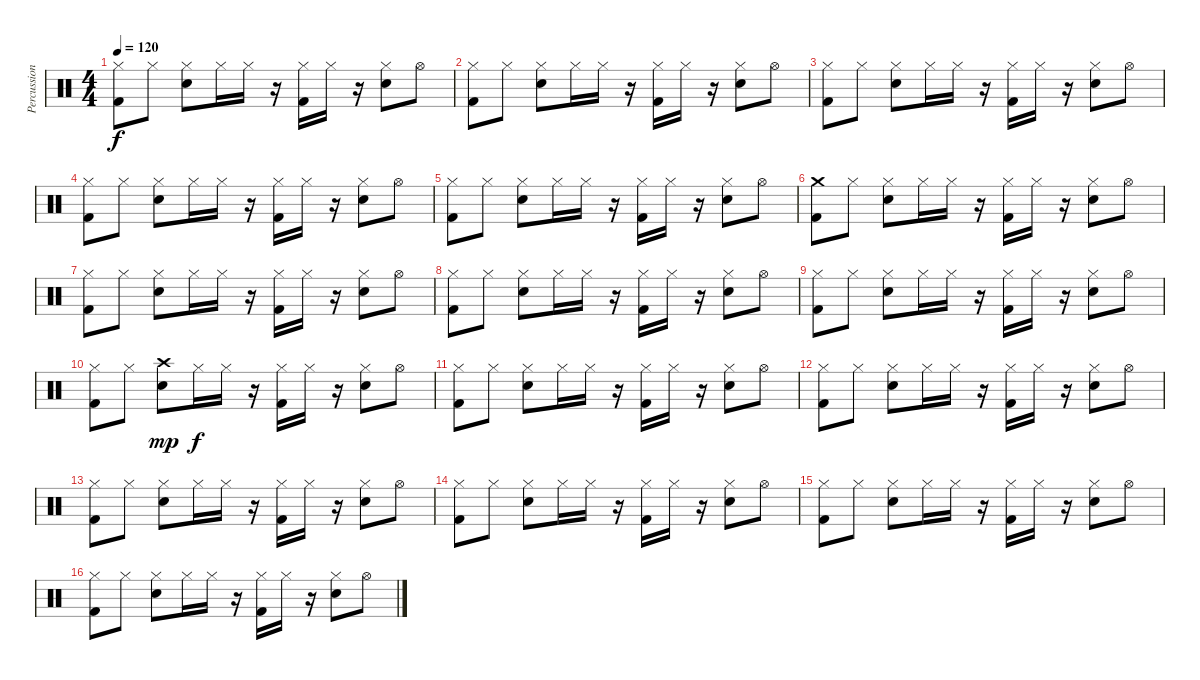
\track ("Percussions" "Percussion") {instrument percussion}
\staff {score}
\articulation defaults
\ts (4 4)
\tempo 120
\clef neutral
\ks c
("Hi-Hat (closed)" "Kick (hit) 2").8{dy f} "Hi-Hat (closed)".8 ("Hi-Hat (closed)" "Snare (hit) 2").8 "Hi-Hat (closed)".16 "Hi-Hat (closed)".16 r.16 ("Hi-Hat (closed)" "Kick (hit) 2").16 "Hi-Hat (closed)".16 r.16 ("Hi-Hat (closed)" "Snare (hit) 2").8 "Hi-Hat (open)".8 |
("Hi-Hat (closed)" "Kick (hit) 2").8 "Hi-Hat (closed)".8 ("Hi-Hat (closed)" "Snare (hit) 2").8 "Hi-Hat (closed)".16 "Hi-Hat (closed)".16 r.16 ("Hi-Hat (closed)" "Kick (hit) 2").16 "Hi-Hat (closed)".16 r.16 ("Hi-Hat (closed)" "Snare (hit) 2").8 "Hi-Hat (open)".8 |
("Hi-Hat (closed)" "Kick (hit) 2").8 "Hi-Hat (closed)".8 ("Hi-Hat (closed)" "Snare (hit) 2").8 "Hi-Hat (closed)".16 "Hi-Hat (closed)".16 r.16 ("Hi-Hat (closed)" "Kick (hit) 2").16 "Hi-Hat (closed)".16 r.16 ("Hi-Hat (closed)" "Snare (hit) 2").8 "Hi-Hat (open)".8 |
("Hi-Hat (closed)" "Kick (hit) 2").8 "Hi-Hat (closed)".8 ("Hi-Hat (closed)" "Snare (hit) 2").8 "Hi-Hat (closed)".16 "Hi-Hat (closed)".16 r.16 ("Hi-Hat (closed)" "Kick (hit) 2").16 "Hi-Hat (closed)".16 r.16 ("Hi-Hat (closed)" "Snare (hit) 2").8 "Hi-Hat (open)".8 |
("Hi-Hat (closed)" "Kick (hit) 2").8 "Hi-Hat (closed)".8 ("Hi-Hat (closed)" "Snare (hit) 2").8 "Hi-Hat (closed)".16 "Hi-Hat (closed)".16 r.16 ("Hi-Hat (closed)" "Kick (hit) 2").16 "Hi-Hat (closed)".16 r.16 ("Hi-Hat (closed)" "Snare (hit) 2").8 "Hi-Hat (open)".8 |
("Crash medium (hit)" "Kick (hit) 2").8 "Hi-Hat (closed)".8 ("Hi-Hat (closed)" "Snare (hit) 2").8 "Hi-Hat (closed)".16 "Hi-Hat (closed)".16 r.16 ("Hi-Hat (closed)" "Kick (hit) 2").16 "Hi-Hat (closed)".16 r.16 ("Hi-Hat (closed)" "Snare (hit) 2").8 "Hi-Hat (open)".8 |
("Hi-Hat (closed)" "Kick (hit) 2").8 "Hi-Hat (closed)".8 ("Hi-Hat (closed)" "Snare (hit) 2").8 "Hi-Hat (closed)".16 "Hi-Hat (closed)".16 r.16 ("Hi-Hat (closed)" "Kick (hit) 2").16 "Hi-Hat (closed)".16 r.16 ("Hi-Hat (closed)" "Snare (hit) 2").8 "Hi-Hat (open)".8 |
("Hi-Hat (closed)" "Kick (hit) 2").8 "Hi-Hat (closed)".8 ("Hi-Hat (closed)" "Snare (hit) 2").8 "Hi-Hat (closed)".16 "Hi-Hat (closed)".16 r.16 ("Hi-Hat (closed)" "Kick (hit) 2").16 "Hi-Hat (closed)".16 r.16 ("Hi-Hat (closed)" "Snare (hit) 2").8 "Hi-Hat (open)".8 |
("Hi-Hat (closed)" "Kick (hit) 2").8 "Hi-Hat (closed)".8 ("Hi-Hat (closed)" "Snare (hit) 2").8 "Hi-Hat (closed)".16 "Hi-Hat (closed)".16 r.16 ("Hi-Hat (closed)" "Kick (hit) 2").16 "Hi-Hat (closed)".16 r.16 ("Hi-Hat (closed)" "Snare (hit) 2").8 "Hi-Hat (open)".8 |
("Hi-Hat (closed)" "Kick (hit) 2").8 "Hi-Hat (closed)".8 ("Crash high (hit)" "Snare (hit) 2").8{dy mp} "Hi-Hat (closed)".16{dy f} "Hi-Hat (closed)".16 r.16 ("Hi-Hat (closed)" "Kick (hit) 2").16 "Hi-Hat (closed)".16 r.16 ("Hi-Hat (closed)" "Snare (hit) 2").8 "Hi-Hat (open)".8 |
("Hi-Hat (closed)" "Kick (hit) 2").8 "Hi-Hat (closed)".8 ("Hi-Hat (closed)" "Snare (hit) 2").8 "Hi-Hat (closed)".16 "Hi-Hat (closed)".16 r.16 ("Hi-Hat (closed)" "Kick (hit) 2").16 "Hi-Hat (closed)".16 r.16 ("Hi-Hat (closed)" "Snare (hit) 2").8 "Hi-Hat (open)".8 |
("Hi-Hat (closed)" "Kick (hit) 2").8 "Hi-Hat (closed)".8 ("Hi-Hat (closed)" "Snare (hit) 2").8 "Hi-Hat (closed)".16 "Hi-Hat (closed)".16 r.16 ("Hi-Hat (closed)" "Kick (hit) 2").16 "Hi-Hat (closed)".16 r.16 ("Hi-Hat (closed)" "Snare (hit) 2").8 "Hi-Hat (open)".8 |
("Hi-Hat (closed)" "Kick (hit) 2").8 "Hi-Hat (closed)".8 ("Hi-Hat (closed)" "Snare (hit) 2").8 "Hi-Hat (closed)".16 "Hi-Hat (closed)".16 r.16 ("Hi-Hat (closed)" "Kick (hit) 2").16 "Hi-Hat (closed)".16 r.16 ("Hi-Hat (closed)" "Snare (hit) 2").8 "Hi-Hat (open)".8 |
("Hi-Hat (closed)" "Kick (hit) 2").8 "Hi-Hat (closed)".8 ("Hi-Hat (closed)" "Snare (hit) 2").8 "Hi-Hat (closed)".16 "Hi-Hat (closed)".16 r.16 ("Hi-Hat (closed)" "Kick (hit) 2").16 "Hi-Hat (closed)".16 r.16 ("Hi-Hat (closed)" "Snare (hit) 2").8 "Hi-Hat (open)".8 |
("Hi-Hat (closed)" "Kick (hit) 2").8 "Hi-Hat (closed)".8 ("Hi-Hat (closed)" "Snare (hit) 2").8 "Hi-Hat (closed)".16 "Hi-Hat (closed)".16 r.16 ("Hi-Hat (closed)" "Kick (hit) 2").16 "Hi-Hat (closed)".16 r.16 ("Hi-Hat (closed)" "Snare (hit) 2").8 "Hi-Hat (open)".8 |
("Hi-Hat (closed)" "Kick (hit) 2").8 "Hi-Hat (closed)".8 ("Hi-Hat (closed)" "Snare (hit) 2").8 "Hi-Hat (closed)".16 "Hi-Hat (closed)".16 r.16 ("Hi-Hat (closed)" "Kick (hit) 2").16 "Hi-Hat (closed)".16 r.16 ("Hi-Hat (closed)" "Snare (hit) 2").8 "Hi-Hat (open)".8
